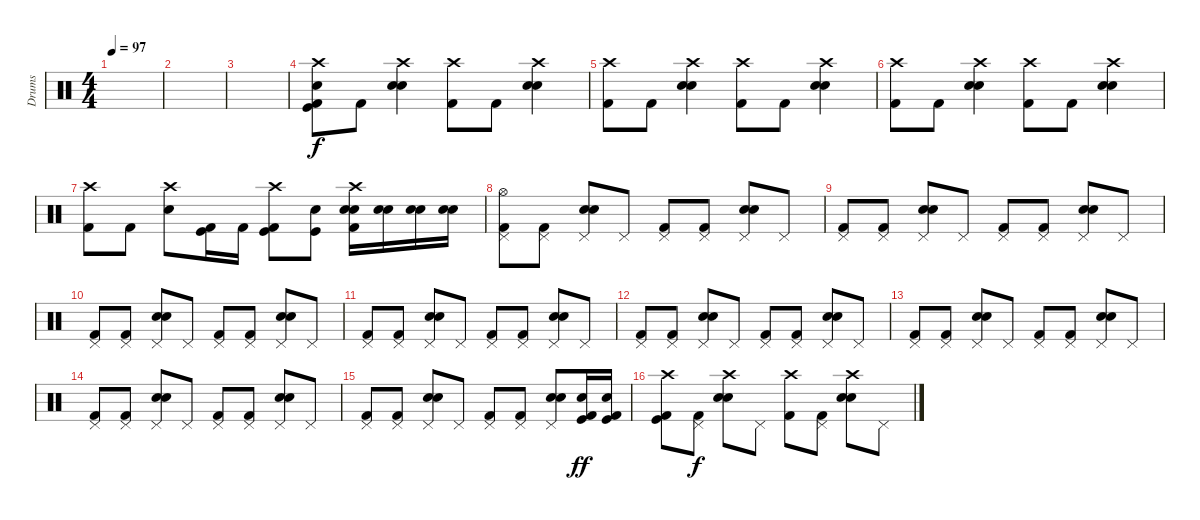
\track ("Drums         Brian Young" "Drums     ") {instrument percussion}
\staff {score}
\articulation defaults
\ts (4 4)
\tempo 97
\clef neutral
\ks c
|
|
|
("Crash high (hit)" "Electric Snare (hit)" "Kick (hit)" "Kick (hit) 2").8 "Kick (hit) 2".8 ("Crash high (hit)" "Electric Snare (hit)" "Snare (hit) 2").4 ("Crash high (hit)" "Kick (hit) 2").8 "Kick (hit) 2".8 ("Crash high (hit)" "Electric Snare (hit)" "Snare (hit) 2").4 |
("Crash high (hit)" "Kick (hit) 2").8 "Kick (hit) 2".8 ("Crash high (hit)" "Electric Snare (hit)" "Snare (hit) 2").4 ("Crash high (hit)" "Kick (hit) 2").8 "Kick (hit) 2".8 ("Crash high (hit)" "Electric Snare (hit)" "Snare (hit) 2").4 |
("Crash high (hit)" "Kick (hit) 2").8 "Kick (hit) 2".8 ("Crash high (hit)" "Electric Snare (hit)" "Snare (hit) 2").4 ("Crash high (hit)" "Kick (hit) 2").8 "Kick (hit) 2".8 ("Crash high (hit)" "Electric Snare (hit)" "Snare (hit) 2").4 |
("Crash high (hit)" "Kick (hit) 2").8 "Kick (hit) 2".8 ("Crash high (hit)" "Electric Snare (hit)").8 ("Kick (hit)" "Kick (hit) 2").16 "Kick (hit) 2".16 ("Crash high (hit)" "Kick (hit)" "Kick (hit) 2").8 ("Electric Snare (hit)" "Kick (hit)").8 ("Crash high (hit)" "Electric Snare (hit)" "Snare (hit) 2" "Kick (hit) 2").16 ("Electric Snare (hit)" "Snare (hit) 2").16 ("Electric Snare (hit)" "Snare (hit) 2").16 ("Electric Snare (hit)" "Snare (hit) 2").16 |
("Pedal Hi-Hat (hit)" "Hi-Hat (open)" "Kick (hit) 2").8 ("Pedal Hi-Hat (hit)" "Kick (hit) 2").8 ("Pedal Hi-Hat (hit)" "Electric Snare (hit)" "Snare (hit) 2").8 "Pedal Hi-Hat (hit)".8 ("Pedal Hi-Hat (hit)" "Kick (hit) 2").8 ("Pedal Hi-Hat (hit)" "Kick (hit) 2").8 ("Pedal Hi-Hat (hit)" "Electric Snare (hit)" "Snare (hit) 2").8 "Pedal Hi-Hat (hit)".8 |
("Pedal Hi-Hat (hit)" "Kick (hit) 2").8 ("Pedal Hi-Hat (hit)" "Kick (hit) 2").8 ("Pedal Hi-Hat (hit)" "Electric Snare (hit)" "Snare (hit) 2").8 "Pedal Hi-Hat (hit)".8 ("Pedal Hi-Hat (hit)" "Kick (hit) 2").8 ("Pedal Hi-Hat (hit)" "Kick (hit) 2").8 ("Pedal Hi-Hat (hit)" "Electric Snare (hit)" "Snare (hit) 2").8 "Pedal Hi-Hat (hit)".8 |
("Pedal Hi-Hat (hit)" "Kick (hit) 2").8 ("Pedal Hi-Hat (hit)" "Kick (hit) 2").8 ("Pedal Hi-Hat (hit)" "Electric Snare (hit)" "Snare (hit) 2").8 "Pedal Hi-Hat (hit)".8 ("Pedal Hi-Hat (hit)" "Kick (hit) 2").8 ("Pedal Hi-Hat (hit)" "Kick (hit) 2").8 ("Pedal Hi-Hat (hit)" "Electric Snare (hit)" "Snare (hit) 2").8 "Pedal Hi-Hat (hit)".8 |
("Pedal Hi-Hat (hit)" "Kick (hit) 2").8 ("Pedal Hi-Hat (hit)" "Kick (hit) 2").8 ("Pedal Hi-Hat (hit)" "Electric Snare (hit)" "Snare (hit) 2").8 "Pedal Hi-Hat (hit)".8 ("Pedal Hi-Hat (hit)" "Kick (hit) 2").8 ("Pedal Hi-Hat (hit)" "Kick (hit) 2").8 ("Pedal Hi-Hat (hit)" "Electric Snare (hit)" "Snare (hit) 2").8 "Pedal Hi-Hat (hit)".8 |
("Pedal Hi-Hat (hit)" "Kick (hit) 2").8 ("Pedal Hi-Hat (hit)" "Kick (hit) 2").8 ("Pedal Hi-Hat (hit)" "Electric Snare (hit)" "Snare (hit) 2").8 "Pedal Hi-Hat (hit)".8 ("Pedal Hi-Hat (hit)" "Kick (hit) 2").8 ("Pedal Hi-Hat (hit)" "Kick (hit) 2").8 ("Pedal Hi-Hat (hit)" "Electric Snare (hit)" "Snare (hit) 2").8 "Pedal Hi-Hat (hit)".8 |
("Pedal Hi-Hat (hit)" "Kick (hit) 2").8 ("Pedal Hi-Hat (hit)" "Kick (hit) 2").8 ("Pedal Hi-Hat (hit)" "Electric Snare (hit)" "Snare (hit) 2").8 "Pedal Hi-Hat (hit)".8 ("Pedal Hi-Hat (hit)" "Kick (hit) 2").8 ("Pedal Hi-Hat (hit)" "Kick (hit) 2").8 ("Pedal Hi-Hat (hit)" "Electric Snare (hit)" "Snare (hit) 2").8 "Pedal Hi-Hat (hit)".8 |
("Pedal Hi-Hat (hit)" "Kick (hit) 2").8 ("Pedal Hi-Hat (hit)" "Kick (hit) 2").8 ("Pedal Hi-Hat (hit)" "Electric Snare (hit)" "Snare (hit) 2").8 "Pedal Hi-Hat (hit)".8 ("Pedal Hi-Hat (hit)" "Kick (hit) 2").8 ("Pedal Hi-Hat (hit)" "Kick (hit) 2").8 ("Pedal Hi-Hat (hit)" "Electric Snare (hit)" "Snare (hit) 2").8 "Pedal Hi-Hat (hit)".8 |
("Pedal Hi-Hat (hit)" "Kick (hit) 2").8 ("Pedal Hi-Hat (hit)" "Kick (hit) 2").8 ("Pedal Hi-Hat (hit)" "Electric Snare (hit)" "Snare (hit) 2").8 "Pedal Hi-Hat (hit)".8 ("Pedal Hi-Hat (hit)" "Kick (hit) 2").8 ("Pedal Hi-Hat (hit)" "Kick (hit) 2").8 ("Pedal Hi-Hat (hit)" "Electric Snare (hit)" "Snare (hit) 2").8 ("Snare (hit) 2" "Kick (hit)" "Kick (hit) 2").16{dy ff} ("Snare (hit) 2" "Kick (hit)" "Kick (hit) 2").16 |
("Crash high (hit)" "Kick (hit)" "Kick (hit) 2").8 ("Pedal Hi-Hat (hit)" "Kick (hit) 2").8{dy f} ("Crash high (hit)" "Electric Snare (hit)" "Snare (hit) 2").8 "Pedal Hi-Hat (hit)".8 ("Crash high (hit)" "Kick (hit) 2").8 ("Pedal Hi-Hat (hit)" "Kick (hit) 2").8 ("Crash high (hit)" "Electric Snare (hit)" "Snare (hit) 2").8 "Pedal Hi-Hat (hit)".8
